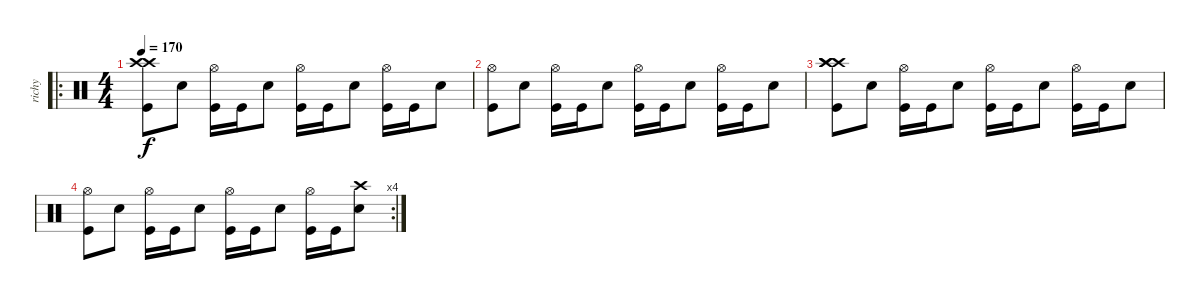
\track ("richy" "richy") {instrument percussion}
\staff {score}
\articulation defaults
\ro
\ts (4 4)
\tempo 170
\clef neutral
\ks c
("Kick (hit)" "Crash high (hit)" "Crash high (hit)").8{dy f} "Snare (hit) 2".8 ("Kick (hit)" "Hi-Hat (open)").16 "Kick (hit)".16 "Snare (hit) 2".8 ("Kick (hit)" "Hi-Hat (open)").16 "Kick (hit)".16 "Snare (hit) 2".8 ("Kick (hit)" "Hi-Hat (open)").16 "Kick (hit)".16 "Snare (hit) 2".8 |
("Kick (hit)" "Hi-Hat (open)").8 "Snare (hit) 2".8 ("Kick (hit)" "Hi-Hat (open)").16 "Kick (hit)".16 "Snare (hit) 2".8 ("Kick (hit)" "Hi-Hat (open)").16 "Kick (hit)".16 "Snare (hit) 2".8 ("Kick (hit)" "Hi-Hat (open)").16 "Kick (hit)".16 "Snare (hit) 2".8 |
("Kick (hit)" "Crash high (hit)" "Crash high (hit)" "Crash high (hit)").8 "Snare (hit) 2".8 ("Kick (hit)" "Hi-Hat (open)").16 "Kick (hit)".16 "Snare (hit) 2".8 ("Kick (hit)" "Hi-Hat (open)").16 "Kick (hit)".16 "Snare (hit) 2".8 ("Kick (hit)" "Hi-Hat (open)").16 "Kick (hit)".16 "Snare (hit) 2".8 |
\rc 4
("Kick (hit)" "Hi-Hat (open)").8 "Snare (hit) 2".8 ("Kick (hit)" "Hi-Hat (open)").16 "Kick (hit)".16 "Snare (hit) 2".8 ("Kick (hit)" "Hi-Hat (open)").16 "Kick (hit)".16 "Snare (hit) 2".8 ("Kick (hit)" "Hi-Hat (open)").16 "Kick (hit)".16 ("Snare (hit) 2" "Crash high (hit)").8
